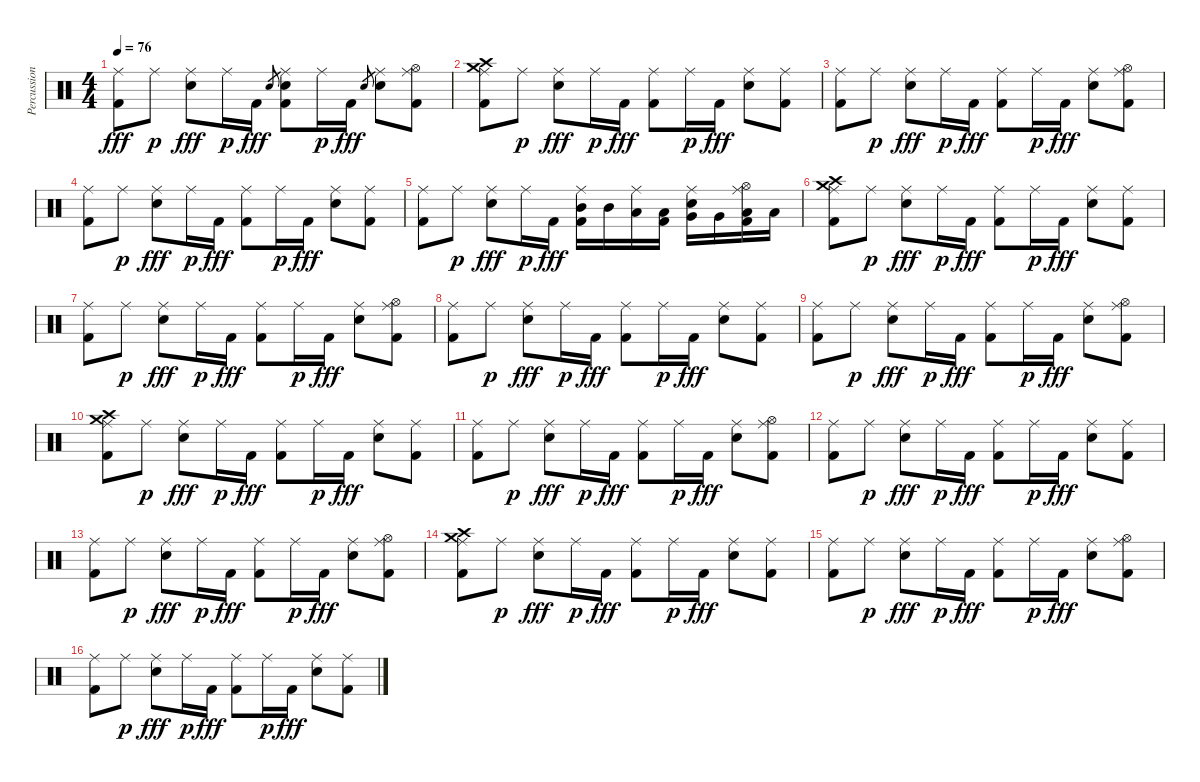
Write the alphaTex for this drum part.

\track ("Percussions" "Percussion") {instrument percussion}
\staff {score}
\articulation defaults
\ts (4 4)
\tempo 76
\clef neutral
\ks c
("Ride (middle)" "Kick (hit) 2").8{dy fff} "Ride (middle)".8{dy p} ("Ride (middle)" "Electric Snare (hit)").8{dy fff} "Ride (middle)".16{dy p} "Kick (hit) 2".16{dy fff} "Electric Snare (hit)".8{gr} ("Ride (middle)" "Electric Snare (hit)" "Kick (hit) 2").8 "Ride (middle)".16{dy p} "Kick (hit) 2".16{dy fff} "Electric Snare (hit)".8{gr} ("Ride (middle)" "Electric Snare (hit)").8 ("Ride (middle)" "Hi-Hat (open)" "Kick (hit) 2").8 |
("Ride (middle)" "Crash medium (hit)" "Crash high (hit)" "Kick (hit) 2").8 "Ride (middle)".8{dy p} ("Ride (middle)" "Electric Snare (hit)").8{dy fff} "Ride (middle)".16{dy p} "Kick (hit) 2".16{dy fff} ("Ride (middle)" "Kick (hit) 2").8 "Ride (middle)".16{dy p} "Kick (hit) 2".16{dy fff} ("Ride (middle)" "Electric Snare (hit)").8 ("Ride (middle)" "Kick (hit) 2").8 |
("Ride (middle)" "Kick (hit) 2").8 "Ride (middle)".8{dy p} ("Ride (middle)" "Electric Snare (hit)").8{dy fff} "Ride (middle)".16{dy p} "Kick (hit) 2".16{dy fff} ("Ride (middle)" "Kick (hit) 2").8 "Ride (middle)".16{dy p} "Kick (hit) 2".16{dy fff} ("Ride (middle)" "Electric Snare (hit)").8 ("Ride (middle)" "Hi-Hat (open)" "Kick (hit) 2").8 |
("Ride (middle)" "Kick (hit) 2").8 "Ride (middle)".8{dy p} ("Ride (middle)" "Electric Snare (hit)").8{dy fff} "Ride (middle)".16{dy p} "Kick (hit) 2".16{dy fff} ("Ride (middle)" "Kick (hit) 2").8 "Ride (middle)".16{dy p} "Kick (hit) 2".16{dy fff} ("Ride (middle)" "Electric Snare (hit)").8 ("Ride (middle)" "Kick (hit) 2").8 |
("Ride (middle)" "Kick (hit) 2").8 "Ride (middle)".8{dy p} ("Ride (middle)" "Electric Snare (hit)").8{dy fff} "Ride (middle)".16{dy p} "Kick (hit) 2".16{dy fff} ("Ride (middle)" "Mid Tom (hit)" "Kick (hit) 2").16 "Mid Tom (hit)".16 ("Ride (middle)" "Low Tom (hit)").16 ("Low Tom (hit)" "Kick (hit) 2").16 ("Ride (middle)" "Electric Snare (hit)" "Very Low Tom (hit)").16 "Very Low Tom (hit)".16 ("Ride (middle)" "Hi-Hat (open)" "Low Floor Tom (hit)" "Kick (hit) 2").16 "Low Floor Tom (hit)".16 |
("Ride (middle)" "Crash medium (hit)" "Crash high (hit)" "Kick (hit) 2").8 "Ride (middle)".8{dy p} ("Ride (middle)" "Electric Snare (hit)").8{dy fff} "Ride (middle)".16{dy p} "Kick (hit) 2".16{dy fff} ("Ride (middle)" "Kick (hit) 2").8 "Ride (middle)".16{dy p} "Kick (hit) 2".16{dy fff} ("Ride (middle)" "Electric Snare (hit)").8 ("Ride (middle)" "Kick (hit) 2").8 |
("Ride (middle)" "Kick (hit) 2").8 "Ride (middle)".8{dy p} ("Ride (middle)" "Electric Snare (hit)").8{dy fff} "Ride (middle)".16{dy p} "Kick (hit) 2".16{dy fff} ("Ride (middle)" "Kick (hit) 2").8 "Ride (middle)".16{dy p} "Kick (hit) 2".16{dy fff} ("Ride (middle)" "Electric Snare (hit)").8 ("Ride (middle)" "Hi-Hat (open)" "Kick (hit) 2").8 |
("Ride (middle)" "Kick (hit) 2").8 "Ride (middle)".8{dy p} ("Ride (middle)" "Electric Snare (hit)").8{dy fff} "Ride (middle)".16{dy p} "Kick (hit) 2".16{dy fff} ("Ride (middle)" "Kick (hit) 2").8 "Ride (middle)".16{dy p} "Kick (hit) 2".16{dy fff} ("Ride (middle)" "Electric Snare (hit)").8 ("Ride (middle)" "Kick (hit) 2").8 |
("Ride (middle)" "Kick (hit) 2").8 "Ride (middle)".8{dy p} ("Ride (middle)" "Electric Snare (hit)").8{dy fff} "Ride (middle)".16{dy p} "Kick (hit) 2".16{dy fff} ("Ride (middle)" "Kick (hit) 2").8 "Ride (middle)".16{dy p} "Kick (hit) 2".16{dy fff} ("Ride (middle)" "Electric Snare (hit)").8 ("Ride (middle)" "Hi-Hat (open)" "Kick (hit) 2").8 |
("Ride (middle)" "Crash medium (hit)" "Crash high (hit)" "Kick (hit) 2").8 "Ride (middle)".8{dy p} ("Ride (middle)" "Electric Snare (hit)").8{dy fff} "Ride (middle)".16{dy p} "Kick (hit) 2".16{dy fff} ("Ride (middle)" "Kick (hit) 2").8 "Ride (middle)".16{dy p} "Kick (hit) 2".16{dy fff} ("Ride (middle)" "Electric Snare (hit)").8 ("Ride (middle)" "Kick (hit) 2").8 |
("Ride (middle)" "Kick (hit) 2").8 "Ride (middle)".8{dy p} ("Ride (middle)" "Electric Snare (hit)").8{dy fff} "Ride (middle)".16{dy p} "Kick (hit) 2".16{dy fff} ("Ride (middle)" "Kick (hit) 2").8 "Ride (middle)".16{dy p} "Kick (hit) 2".16{dy fff} ("Ride (middle)" "Electric Snare (hit)").8 ("Ride (middle)" "Hi-Hat (open)" "Kick (hit) 2").8 |
("Ride (middle)" "Kick (hit) 2").8 "Ride (middle)".8{dy p} ("Ride (middle)" "Electric Snare (hit)").8{dy fff} "Ride (middle)".16{dy p} "Kick (hit) 2".16{dy fff} ("Ride (middle)" "Kick (hit) 2").8 "Ride (middle)".16{dy p} "Kick (hit) 2".16{dy fff} ("Ride (middle)" "Electric Snare (hit)").8 ("Ride (middle)" "Kick (hit) 2").8 |
("Ride (middle)" "Kick (hit) 2").8 "Ride (middle)".8{dy p} ("Ride (middle)" "Electric Snare (hit)").8{dy fff} "Ride (middle)".16{dy p} "Kick (hit) 2".16{dy fff} ("Ride (middle)" "Kick (hit) 2").8 "Ride (middle)".16{dy p} "Kick (hit) 2".16{dy fff} ("Ride (middle)" "Electric Snare (hit)").8 ("Ride (middle)" "Hi-Hat (open)" "Kick (hit) 2").8 |
("Ride (middle)" "Crash medium (hit)" "Crash high (hit)" "Kick (hit) 2").8 "Ride (middle)".8{dy p} ("Ride (middle)" "Electric Snare (hit)").8{dy fff} "Ride (middle)".16{dy p} "Kick (hit) 2".16{dy fff} ("Ride (middle)" "Kick (hit) 2").8 "Ride (middle)".16{dy p} "Kick (hit) 2".16{dy fff} ("Ride (middle)" "Electric Snare (hit)").8 ("Ride (middle)" "Kick (hit) 2").8 |
("Ride (middle)" "Kick (hit) 2").8 "Ride (middle)".8{dy p} ("Ride (middle)" "Electric Snare (hit)").8{dy fff} "Ride (middle)".16{dy p} "Kick (hit) 2".16{dy fff} ("Ride (middle)" "Kick (hit) 2").8 "Ride (middle)".16{dy p} "Kick (hit) 2".16{dy fff} ("Ride (middle)" "Electric Snare (hit)").8 ("Ride (middle)" "Hi-Hat (open)" "Kick (hit) 2").8 |
("Ride (middle)" "Kick (hit) 2").8 "Ride (middle)".8{dy p} ("Ride (middle)" "Electric Snare (hit)").8{dy fff} "Ride (middle)".16{dy p} "Kick (hit) 2".16{dy fff} ("Ride (middle)" "Kick (hit) 2").8 "Ride (middle)".16{dy p} "Kick (hit) 2".16{dy fff} ("Ride (middle)" "Electric Snare (hit)").8 ("Ride (middle)" "Kick (hit) 2").8
